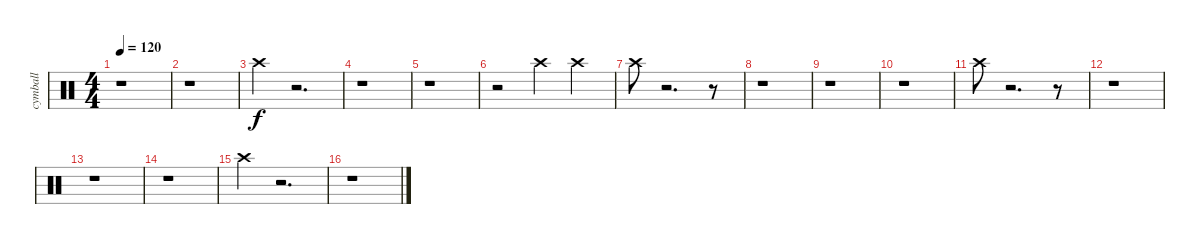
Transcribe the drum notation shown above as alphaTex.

\track ("cymball" "cymball") {instrument percussion}
\staff {score}
\articulation defaults
\ts (4 4)
\tempo 120
\clef neutral
\ks c
r.1{dy f} |
r.1 |
"Crash high (hit)".4 r.2{d} |
r.1 |
r.1 |
r.2 "Crash high (hit)".4 "Crash high (hit)".4 |
"Crash high (hit)".8 r.2{d} r.8 |
r.1 |
r.1 |
r.1 |
"Crash high (hit)".8 r.2{d} r.8 |
r.1 |
r.1 |
r.1 |
"Crash high (hit)".4 r.2{d} |
r.1
